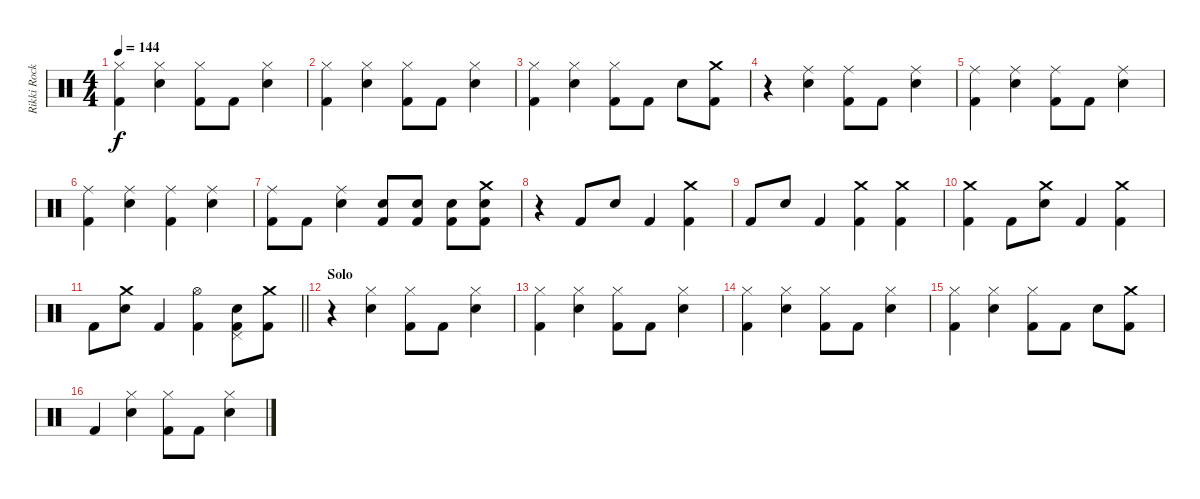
\track ("Rikki Rockett - Drums" "Rikki Rock") {instrument percussion}
\staff {score}
\articulation defaults
\ts (4 4)
\tempo 144
\clef neutral
\ks c
("Hi-Hat (closed)" "Kick (hit) 2").4{dy f} ("Hi-Hat (closed)" "Electric Snare (hit)").4 ("Hi-Hat (closed)" "Kick (hit) 2").8 "Kick (hit) 2".8 ("Hi-Hat (closed)" "Electric Snare (hit)").4 |
("Hi-Hat (closed)" "Kick (hit) 2").4 ("Hi-Hat (closed)" "Electric Snare (hit)").4 ("Hi-Hat (closed)" "Kick (hit) 2").8 "Kick (hit) 2".8 ("Hi-Hat (closed)" "Electric Snare (hit)").4 |
("Hi-Hat (closed)" "Kick (hit) 2").4 ("Hi-Hat (closed)" "Electric Snare (hit)").4 ("Hi-Hat (closed)" "Kick (hit) 2").8 "Kick (hit) 2".8 "Electric Snare (hit)".8 ("Crash medium (hit)" "Kick (hit) 2").8 |
r.4 ("Ride (middle)" "Electric Snare (hit)").4 ("Ride (middle)" "Kick (hit) 2").8 "Kick (hit) 2".8 ("Ride (middle)" "Electric Snare (hit)").4 |
("Ride (middle)" "Kick (hit) 2").4 ("Ride (middle)" "Electric Snare (hit)").4 ("Ride (middle)" "Kick (hit) 2").8 "Kick (hit) 2".8 ("Ride (middle)" "Electric Snare (hit)").4 |
("Ride (middle)" "Kick (hit) 2").4 ("Ride (middle)" "Electric Snare (hit)").4 ("Ride (middle)" "Kick (hit) 2").4 ("Ride (middle)" "Electric Snare (hit)").4 |
("Ride (middle)" "Kick (hit) 2").8 "Kick (hit) 2".8 ("Ride (middle)" "Electric Snare (hit)").4 ("Electric Snare (hit)" "Kick (hit) 2").8 ("Electric Snare (hit)" "Kick (hit) 2").8 ("Electric Snare (hit)" "Kick (hit) 2").8 ("Crash medium (hit)" "Electric Snare (hit)" "Kick (hit) 2").8 |
r.4 "Kick (hit) 2".8 "Electric Snare (hit)".8 "Kick (hit) 2".4 ("Crash medium (hit)" "Kick (hit) 2").4 |
"Kick (hit) 2".8 "Electric Snare (hit)".8 "Kick (hit) 2".4 ("Crash medium (hit)" "Kick (hit) 2").4 ("Crash medium (hit)" "Kick (hit) 2").4 |
("Crash medium (hit)" "Kick (hit) 2").4 "Kick (hit) 2".8 ("Crash medium (hit)" "Electric Snare (hit)").8 "Kick (hit) 2".4 ("Crash medium (hit)" "Kick (hit) 2").4 |
\barLineRight lightlight "Kick (hit) 2".8
("Crash medium (hit)" "Electric Snare (hit)").8 "Kick (hit) 2".4 ("Hi-Hat (open)" "Kick (hit) 2").4 ("Pedal Hi-Hat (hit)" "Electric Snare (hit)" "Kick (hit) 2").8 ("Crash medium (hit)" "Kick (hit) 2").8 |
\section ("" "Solo")
r.4 ("Hi-Hat (closed)" "Electric Snare (hit)").4 ("Hi-Hat (closed)" "Kick (hit) 2").8 "Kick (hit) 2".8 ("Hi-Hat (closed)" "Electric Snare (hit)").4 |
("Hi-Hat (closed)" "Kick (hit) 2").4 ("Hi-Hat (closed)" "Electric Snare (hit)").4 ("Hi-Hat (closed)" "Kick (hit) 2").8 "Kick (hit) 2".8 ("Hi-Hat (closed)" "Electric Snare (hit)").4 |
("Hi-Hat (closed)" "Kick (hit) 2").4 ("Hi-Hat (closed)" "Electric Snare (hit)").4 ("Hi-Hat (closed)" "Kick (hit) 2").8 "Kick (hit) 2".8 ("Hi-Hat (closed)" "Electric Snare (hit)").4 |
("Hi-Hat (closed)" "Kick (hit) 2").4 ("Hi-Hat (closed)" "Electric Snare (hit)").4 ("Hi-Hat (closed)" "Kick (hit) 2").8 "Kick (hit) 2".8 "Electric Snare (hit)".8 ("Crash medium (hit)" "Kick (hit) 2").8 |
"Kick (hit) 2".4 ("Hi-Hat (closed)" "Electric Snare (hit)").4 ("Hi-Hat (closed)" "Kick (hit) 2").8 "Kick (hit) 2".8 ("Hi-Hat (closed)" "Electric Snare (hit)").4
